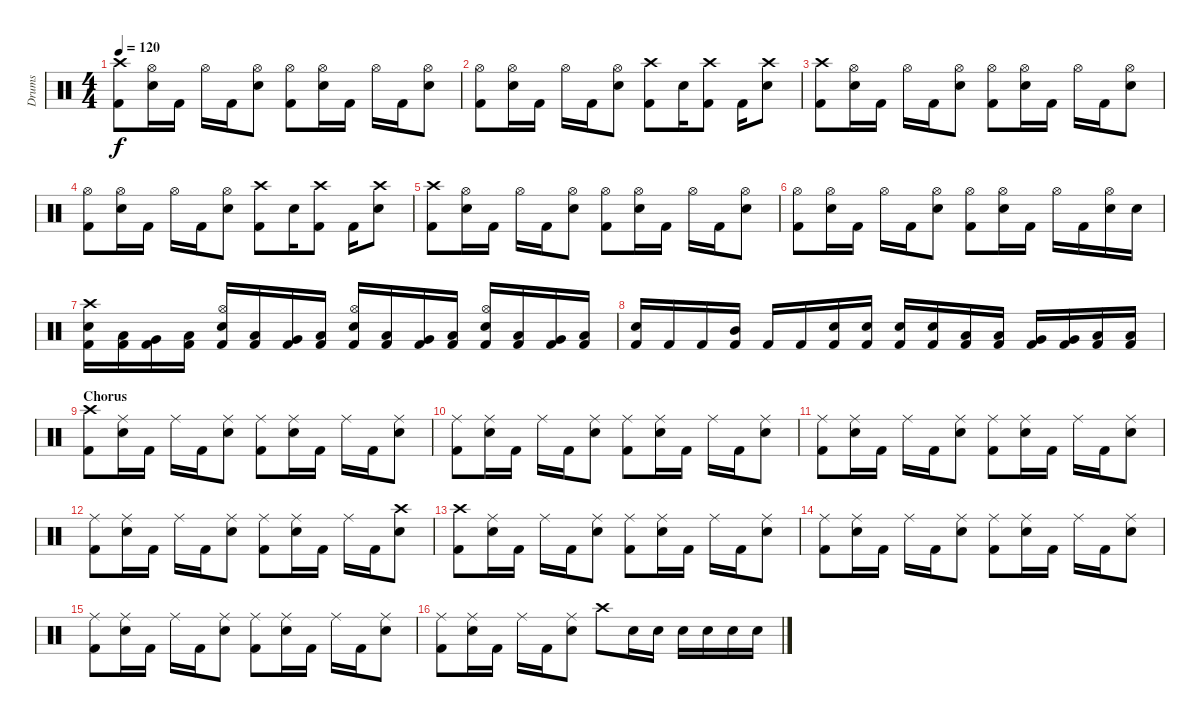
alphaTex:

\track ("Drums" "Drums") {instrument percussion}
\staff {score}
\articulation defaults
\ts (4 4)
\tempo 120
\clef neutral
\ks c
("Crash high (hit)" "Kick (hit) 2").8{dy f} ("Hi-Hat (open)" "Snare (hit) 2").16 "Kick (hit) 2".16 "Hi-Hat (open)".16 "Kick (hit) 2".16 ("Hi-Hat (open)" "Snare (hit) 2").8 ("Hi-Hat (open)" "Kick (hit) 2").8 ("Hi-Hat (open)" "Snare (hit) 2").16 "Kick (hit) 2".16 "Hi-Hat (open)".16 "Kick (hit) 2".16 ("Hi-Hat (open)" "Snare (hit) 2").8 |
("Hi-Hat (open)" "Kick (hit) 2").8 ("Hi-Hat (open)" "Snare (hit) 2").16 "Kick (hit) 2".16 "Hi-Hat (open)".16 "Kick (hit) 2".16 ("Hi-Hat (open)" "Snare (hit) 2").8 ("Crash high (hit)" "Kick (hit) 2").8 "Snare (hit) 2".16 ("Crash high (hit)" "Kick (hit) 2").8 "Kick (hit) 2".16 ("Crash high (hit)" "Snare (hit) 2").8 |
("Crash high (hit)" "Kick (hit) 2").8 ("Hi-Hat (open)" "Snare (hit) 2").16 "Kick (hit) 2".16 "Hi-Hat (open)".16 "Kick (hit) 2".16 ("Hi-Hat (open)" "Snare (hit) 2").8 ("Hi-Hat (open)" "Kick (hit) 2").8 ("Hi-Hat (open)" "Snare (hit) 2").16 "Kick (hit) 2".16 "Hi-Hat (open)".16 "Kick (hit) 2".16 ("Hi-Hat (open)" "Snare (hit) 2").8 |
("Hi-Hat (open)" "Kick (hit) 2").8 ("Hi-Hat (open)" "Snare (hit) 2").16 "Kick (hit) 2".16 "Hi-Hat (open)".16 "Kick (hit) 2".16 ("Hi-Hat (open)" "Snare (hit) 2").8 ("Crash high (hit)" "Kick (hit) 2").8 "Snare (hit) 2".16 ("Crash high (hit)" "Kick (hit) 2").8 "Kick (hit) 2".16 ("Crash high (hit)" "Snare (hit) 2").8 |
("Crash high (hit)" "Kick (hit) 2").8 ("Hi-Hat (open)" "Snare (hit) 2").16 "Kick (hit) 2".16 "Hi-Hat (open)".16 "Kick (hit) 2".16 ("Hi-Hat (open)" "Snare (hit) 2").8 ("Hi-Hat (open)" "Kick (hit) 2").8 ("Hi-Hat (open)" "Snare (hit) 2").16 "Kick (hit) 2".16 "Hi-Hat (open)".16 "Kick (hit) 2".16 ("Hi-Hat (open)" "Snare (hit) 2").8 |
("Hi-Hat (open)" "Kick (hit) 2").8 ("Hi-Hat (open)" "Snare (hit) 2").16 "Kick (hit) 2".16 "Hi-Hat (open)".16 "Kick (hit) 2".16 ("Hi-Hat (open)" "Snare (hit) 2").8 ("Hi-Hat (open)" "Kick (hit) 2").8 ("Hi-Hat (open)" "Snare (hit) 2").16 "Kick (hit) 2".16 "Hi-Hat (open)".16 "Kick (hit) 2".16 ("Hi-Hat (open)" "Snare (hit) 2").16 "Snare (hit) 2".16 |
("Crash high (hit)" "Snare (hit) 2" "Kick (hit) 2").16 ("Low Tom (hit)" "Kick (hit) 2").16 ("Very Low Tom (hit)" "Kick (hit) 2").16 ("Low Floor Tom (hit)" "Kick (hit) 2").16 ("Hi-Hat (open)" "Snare (hit) 2" "Kick (hit) 2").16 ("Low Tom (hit)" "Kick (hit) 2").16 ("Very Low Tom (hit)" "Kick (hit) 2").16 ("Low Floor Tom (hit)" "Kick (hit) 2").16 ("Hi-Hat (open)" "Snare (hit) 2" "Kick (hit) 2").16 ("Low Tom (hit)" "Kick (hit) 2").16 ("Very Low Tom (hit)" "Kick (hit) 2").16 ("Low Floor Tom (hit)" "Kick (hit) 2").16 ("Hi-Hat (open)" "Snare (hit) 2" "Kick (hit) 2").16 ("Low Tom (hit)" "Kick (hit) 2").16 ("Very Low Tom (hit)" "Kick (hit) 2").16 ("Low Floor Tom (hit)" "Kick (hit) 2").16 |
("Snare (hit) 2" "Kick (hit) 2").16 "Kick (hit) 2".16 "Kick (hit) 2".16 ("Mid Tom (hit)" "Kick (hit) 2").16 "Kick (hit) 2".16 "Kick (hit) 2".16 ("Snare (hit) 2" "Kick (hit) 2").16 ("Snare (hit) 2" "Kick (hit) 2").16 ("Snare (hit) 2" "Kick (hit) 2").16 ("Snare (hit) 2" "Kick (hit) 2").16 ("Low Tom (hit)" "Kick (hit) 2").16 ("Low Tom (hit)" "Kick (hit) 2").16 ("Very Low Tom (hit)" "Kick (hit) 2").16 ("Very Low Tom (hit)" "Kick (hit) 2").16 ("Low Floor Tom (hit)" "Kick (hit) 2").16 ("Low Floor Tom (hit)" "Kick (hit) 2").16 |
\section ("" "Chorus")
("Crash high (hit)" "Kick (hit) 2").8 ("Ride (middle)" "Snare (hit) 2").16 "Kick (hit) 2".16 "Ride (middle)".16 "Kick (hit) 2".16 ("Ride (middle)" "Snare (hit) 2").8 ("Ride (middle)" "Kick (hit) 2").8 ("Ride (middle)" "Snare (hit) 2").16 "Kick (hit) 2".16 "Ride (middle)".16 "Kick (hit) 2".16 ("Ride (middle)" "Snare (hit) 2").8 |
("Ride (middle)" "Kick (hit) 2").8 ("Ride (middle)" "Snare (hit) 2").16 "Kick (hit) 2".16 "Ride (middle)".16 "Kick (hit) 2".16 ("Ride (middle)" "Snare (hit) 2").8 ("Ride (middle)" "Kick (hit) 2").8 ("Ride (middle)" "Snare (hit) 2").16 "Kick (hit) 2".16 "Ride (middle)".16 "Kick (hit) 2".16 ("Ride (middle)" "Snare (hit) 2").8 |
("Ride (middle)" "Kick (hit) 2").8 ("Ride (middle)" "Snare (hit) 2").16 "Kick (hit) 2".16 "Ride (middle)".16 "Kick (hit) 2".16 ("Ride (middle)" "Snare (hit) 2").8 ("Ride (middle)" "Kick (hit) 2").8 ("Ride (middle)" "Snare (hit) 2").16 "Kick (hit) 2".16 "Ride (middle)".16 "Kick (hit) 2".16 ("Ride (middle)" "Snare (hit) 2").8 |
("Ride (middle)" "Kick (hit) 2").8 ("Ride (middle)" "Snare (hit) 2").16 "Kick (hit) 2".16 "Ride (middle)".16 "Kick (hit) 2".16 ("Ride (middle)" "Snare (hit) 2").8 ("Ride (middle)" "Kick (hit) 2").8 ("Ride (middle)" "Snare (hit) 2").16 "Kick (hit) 2".16 "Ride (middle)".16 "Kick (hit) 2".16 ("Crash high (hit)" "Snare (hit) 2").8 |
("Crash high (hit)" "Kick (hit) 2").8 ("Ride (middle)" "Snare (hit) 2").16 "Kick (hit) 2".16 "Ride (middle)".16 "Kick (hit) 2".16 ("Ride (middle)" "Snare (hit) 2").8 ("Ride (middle)" "Kick (hit) 2").8 ("Ride (middle)" "Snare (hit) 2").16 "Kick (hit) 2".16 "Ride (middle)".16 "Kick (hit) 2".16 ("Ride (middle)" "Snare (hit) 2").8 |
("Ride (middle)" "Kick (hit) 2").8 ("Ride (middle)" "Snare (hit) 2").16 "Kick (hit) 2".16 "Ride (middle)".16 "Kick (hit) 2".16 ("Ride (middle)" "Snare (hit) 2").8 ("Ride (middle)" "Kick (hit) 2").8 ("Ride (middle)" "Snare (hit) 2").16 "Kick (hit) 2".16 "Ride (middle)".16 "Kick (hit) 2".16 ("Ride (middle)" "Snare (hit) 2").8 |
("Ride (middle)" "Kick (hit) 2").8 ("Ride (middle)" "Snare (hit) 2").16 "Kick (hit) 2".16 "Ride (middle)".16 "Kick (hit) 2".16 ("Ride (middle)" "Snare (hit) 2").8 ("Ride (middle)" "Kick (hit) 2").8 ("Ride (middle)" "Snare (hit) 2").16 "Kick (hit) 2".16 "Ride (middle)".16 "Kick (hit) 2".16 ("Ride (middle)" "Snare (hit) 2").8 |
("Ride (middle)" "Kick (hit) 2").8 ("Ride (middle)" "Snare (hit) 2").16 "Kick (hit) 2".16 "Ride (middle)".16 "Kick (hit) 2".16 ("Ride (middle)" "Snare (hit) 2").8 "Crash high (hit)".8 "Snare (hit) 2".16 "Snare (hit) 2".16 "Snare (hit) 2".16 "Snare (hit) 2".16 "Snare (hit) 2".16 "Snare (hit) 2".16
